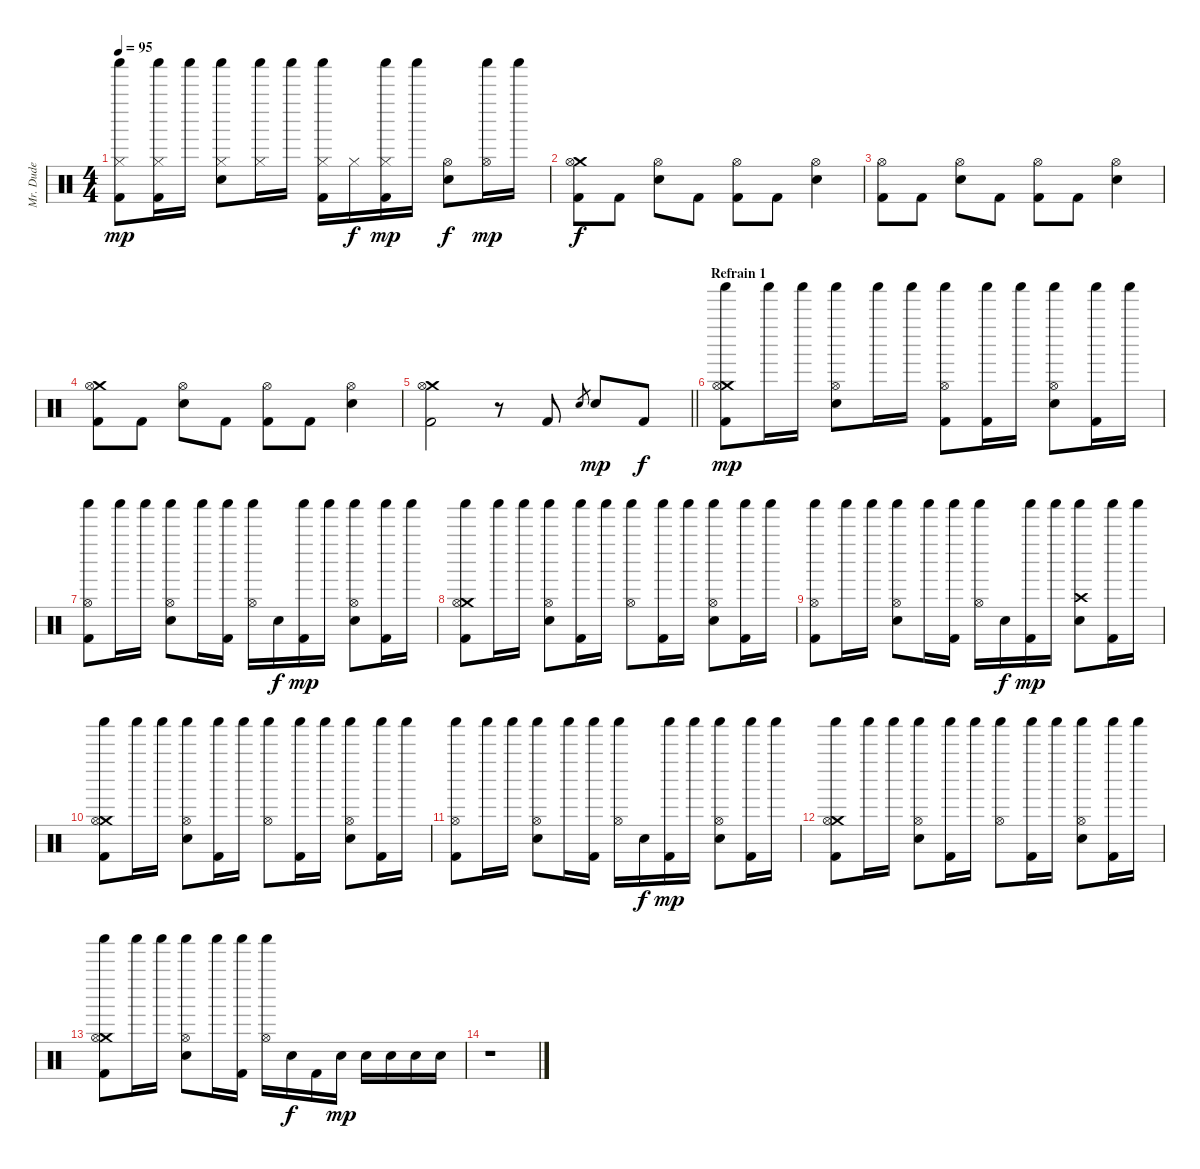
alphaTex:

\track ("Mr. Dude" "Mr. Dude") {instrument percussion}
\staff {score}
\articulation defaults
\ts (4 4)
\tempo 95
\clef neutral
\ks c
("Shaker (hit)" "Hi-Hat (closed)" "Kick (hit) 2").8{dy mp} ("Shaker (hit)" "Hi-Hat (closed)" "Kick (hit) 2").16 "Shaker (hit)".16 ("Shaker (hit)" "Hi-Hat (closed)" "Electric Snare (hit)").8 ("Shaker (hit)" "Hi-Hat (closed)").16 "Shaker (hit)".16 ("Shaker (hit)" "Hi-Hat (closed)" "Kick (hit) 2").16 "Hi-Hat (closed)".16{dy f} ("Shaker (hit)" "Hi-Hat (closed)" "Kick (hit) 2").16{dy mp} "Shaker (hit)".16 ("Hi-Hat (open)" "Electric Snare (hit)").8{dy f} ("Shaker (hit)" "Hi-Hat (open)").16{dy mp} "Shaker (hit)".16 |
("Crash medium (hit)" "Hi-Hat (open)" "Kick (hit) 2").8{dy f} "Kick (hit) 2".8 ("Hi-Hat (open)" "Electric Snare (hit)").8 "Kick (hit) 2".8 ("Hi-Hat (open)" "Kick (hit) 2").8 "Kick (hit) 2".8 ("Hi-Hat (open)" "Electric Snare (hit)").4 |
("Hi-Hat (open)" "Kick (hit) 2").8 "Kick (hit) 2".8 ("Hi-Hat (open)" "Electric Snare (hit)").8 "Kick (hit) 2".8 ("Hi-Hat (open)" "Kick (hit) 2").8 "Kick (hit) 2".8 ("Hi-Hat (open)" "Electric Snare (hit)").4 |
("Crash medium (hit)" "Hi-Hat (open)" "Kick (hit) 2").8 "Kick (hit) 2".8 ("Hi-Hat (open)" "Electric Snare (hit)").8 "Kick (hit) 2".8 ("Hi-Hat (open)" "Kick (hit) 2").8 "Kick (hit) 2".8 ("Hi-Hat (open)" "Electric Snare (hit)").4 |
\barLineRight lightlight
("Crash medium (hit)" "Hi-Hat (open)" "Kick (hit) 2").2 r.8 "Kick (hit) 2".8 "Electric Snare (hit)".8{gr} "Electric Snare (hit)".8{dy mp} "Kick (hit) 2".8{dy f} |
\section ("" "Refrain 1")
("Crash medium (hit)" "Shaker (hit)" "Hi-Hat (open)" "Kick (hit) 2").8{dy mp} "Shaker (hit)".16 "Shaker (hit)".16 ("Shaker (hit)" "Hi-Hat (open)" "Electric Snare (hit)").8 "Shaker (hit)".16 "Shaker (hit)".16 ("Shaker (hit)" "Hi-Hat (open)" "Kick (hit) 2").8 ("Shaker (hit)" "Kick (hit) 2").16 "Shaker (hit)".16 ("Shaker (hit)" "Hi-Hat (open)" "Electric Snare (hit)").8 ("Shaker (hit)" "Kick (hit) 2").16 "Shaker (hit)".16 |
("Shaker (hit)" "Hi-Hat (open)" "Kick (hit) 2").8 "Shaker (hit)".16 "Shaker (hit)".16 ("Shaker (hit)" "Hi-Hat (open)" "Electric Snare (hit)").8 "Shaker (hit)".16 ("Shaker (hit)" "Kick (hit) 2").16 ("Shaker (hit)" "Hi-Hat (open)").16 "Electric Snare (hit)".16{dy f} ("Shaker (hit)" "Kick (hit) 2").16{dy mp} "Shaker (hit)".16 ("Shaker (hit)" "Hi-Hat (open)" "Electric Snare (hit)").8 ("Shaker (hit)" "Kick (hit) 2").16 "Shaker (hit)".16 |
("Crash medium (hit)" "Shaker (hit)" "Hi-Hat (open)" "Kick (hit) 2").8 "Shaker (hit)".16 "Shaker (hit)".16 ("Shaker (hit)" "Hi-Hat (open)" "Electric Snare (hit)").8 ("Shaker (hit)" "Kick (hit) 2").16 "Shaker (hit)".16 ("Shaker (hit)" "Hi-Hat (open)").8 ("Shaker (hit)" "Kick (hit) 2").16 "Shaker (hit)".16 ("Shaker (hit)" "Hi-Hat (open)" "Electric Snare (hit)").8 ("Shaker (hit)" "Kick (hit) 2").16 "Shaker (hit)".16 |
("Shaker (hit)" "Hi-Hat (open)" "Kick (hit) 2").8 "Shaker (hit)".16 "Shaker (hit)".16 ("Shaker (hit)" "Hi-Hat (open)" "Electric Snare (hit)").8 "Shaker (hit)".16 ("Shaker (hit)" "Kick (hit) 2").16 ("Shaker (hit)" "Hi-Hat (open)").16 "Electric Snare (hit)".16{dy f} ("Shaker (hit)" "Kick (hit) 2").16{dy mp} "Shaker (hit)".16 ("Crash high (hit)" "Shaker (hit)" "Electric Snare (hit)").8 ("Shaker (hit)" "Kick (hit) 2").16 "Shaker (hit)".16 |
("Crash medium (hit)" "Shaker (hit)" "Hi-Hat (open)" "Kick (hit) 2").8 "Shaker (hit)".16 "Shaker (hit)".16 ("Shaker (hit)" "Hi-Hat (open)" "Electric Snare (hit)").8 ("Shaker (hit)" "Kick (hit) 2").16 "Shaker (hit)".16 ("Shaker (hit)" "Hi-Hat (open)").8 ("Shaker (hit)" "Kick (hit) 2").16 "Shaker (hit)".16 ("Shaker (hit)" "Hi-Hat (open)" "Electric Snare (hit)").8 ("Shaker (hit)" "Kick (hit) 2").16 "Shaker (hit)".16 |
("Shaker (hit)" "Hi-Hat (open)" "Kick (hit) 2").8 "Shaker (hit)".16 "Shaker (hit)".16 ("Shaker (hit)" "Hi-Hat (open)" "Electric Snare (hit)").8 "Shaker (hit)".16 ("Shaker (hit)" "Kick (hit) 2").16 ("Shaker (hit)" "Hi-Hat (open)").16 "Electric Snare (hit)".16{dy f} ("Shaker (hit)" "Kick (hit) 2").16{dy mp} "Shaker (hit)".16 ("Shaker (hit)" "Hi-Hat (open)" "Electric Snare (hit)").8 ("Shaker (hit)" "Kick (hit) 2").16 "Shaker (hit)".16 |
("Crash medium (hit)" "Shaker (hit)" "Hi-Hat (open)" "Kick (hit) 2").8 "Shaker (hit)".16 "Shaker (hit)".16 ("Shaker (hit)" "Hi-Hat (open)" "Electric Snare (hit)").8 ("Shaker (hit)" "Kick (hit) 2").16 "Shaker (hit)".16 ("Shaker (hit)" "Hi-Hat (open)").8 ("Shaker (hit)" "Kick (hit) 2").16 "Shaker (hit)".16 ("Shaker (hit)" "Hi-Hat (open)" "Electric Snare (hit)").8 ("Shaker (hit)" "Kick (hit) 2").16 "Shaker (hit)".16 |
("Crash medium (hit)" "Shaker (hit)" "Hi-Hat (open)" "Kick (hit) 2").8 "Shaker (hit)".16 "Shaker (hit)".16 ("Shaker (hit)" "Hi-Hat (open)" "Electric Snare (hit)").8 "Shaker (hit)".16 ("Shaker (hit)" "Kick (hit) 2").16 ("Shaker (hit)" "Hi-Hat (open)").16 "Electric Snare (hit)".16{dy f} "Kick (hit) 2".16 "Electric Snare (hit)".16{dy mp} "Electric Snare (hit)".16 "Electric Snare (hit)".16 "Electric Snare (hit)".16 "Electric Snare (hit)".16 |
r.1
